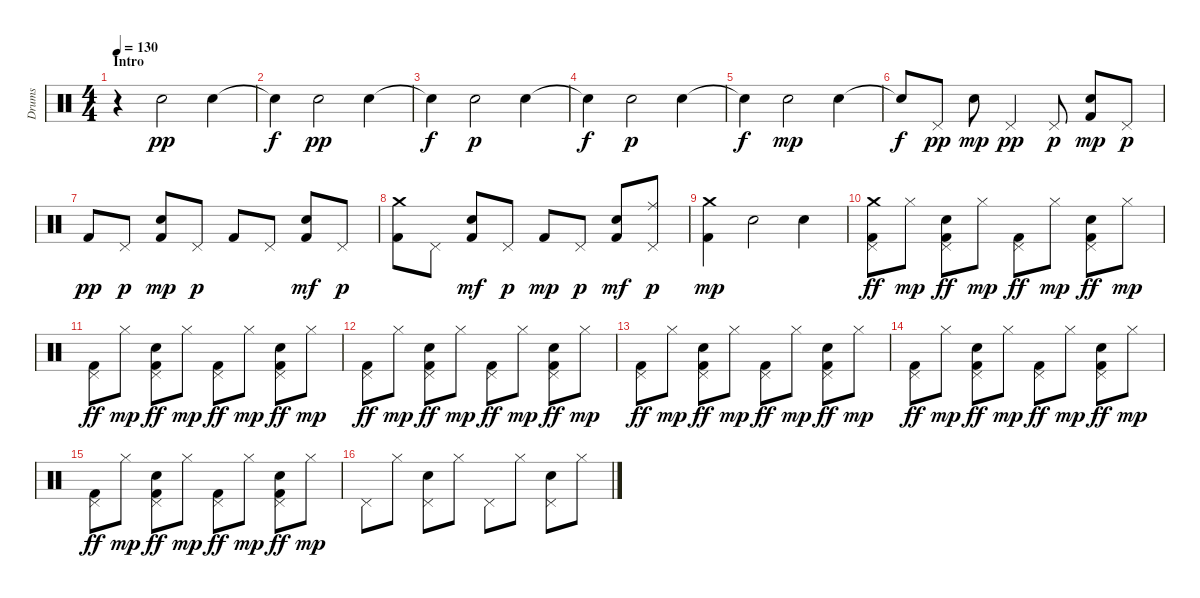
\track ("Drums" "Drums") {instrument percussion}
\staff {score}
\articulation defaults
\ts (4 4)
\section ("" "Intro")
\tempo 130
\clef neutral
\ks c
r.4{dy pp} "Hand Clap (hit)".2 "Hand Clap (hit)".4 |
"Snare (hit)"{t}.4{dy f} "Hand Clap (hit)".2{dy pp} "Hand Clap (hit)".4 |
"Snare (hit)"{t}.4{dy f} "Hand Clap (hit)".2{dy p} "Hand Clap (hit)".4 |
"Snare (hit)"{t}.4{dy f} "Hand Clap (hit)".2{dy p} "Hand Clap (hit)".4 |
"Snare (hit)"{t}.4{dy f} "Hand Clap (hit)".2{dy mp} "Hand Clap (hit)".4 |
"Snare (hit)"{t}.8{dy f} "Pedal Hi-Hat (hit)".8{dy pp} "Hand Clap (hit)".8{dy mp} "Pedal Hi-Hat (hit)".4{dy pp} "Pedal Hi-Hat (hit)".8{dy p} ("Kick (hit) 2" "Hand Clap (hit)").8{dy mp} "Pedal Hi-Hat (hit)".8{dy p} |
"Kick (hit) 2".8{dy pp} "Pedal Hi-Hat (hit)".8{dy p} ("Kick (hit) 2" "Hand Clap (hit)").8{dy mp} "Pedal Hi-Hat (hit)".8{dy p} "Kick (hit) 2".8 "Pedal Hi-Hat (hit)".8 ("Kick (hit) 2" "Hand Clap (hit)").8{dy mf} "Pedal Hi-Hat (hit)".8{dy p} |
("Crash medium (hit)" "Kick (hit) 2").8 "Pedal Hi-Hat (hit)".8 ("Kick (hit) 2" "Hand Clap (hit)").8{dy mf} "Pedal Hi-Hat (hit)".8{dy p} "Kick (hit) 2".8{dy mp} "Pedal Hi-Hat (hit)".8{dy p} ("Kick (hit) 2" "Hand Clap (hit)").8{dy mf} ("Ride (middle)" "Pedal Hi-Hat (hit)").8{dy p} |
("Crash medium (hit)" "Kick (hit) 2").4{dy mp} "Hand Clap (hit)".2 "Hand Clap (hit)".4 |
("Crash medium (hit)" "Pedal Hi-Hat (hit)" "Kick (hit) 2").8{dy ff} "Hi-Hat (closed)".8{dy mp} ("Hand Clap (hit)" "Pedal Hi-Hat (hit)" "Kick (hit) 2").8{dy ff} "Hi-Hat (closed)".8{dy mp} ("Pedal Hi-Hat (hit)" "Kick (hit) 2").8{dy ff} "Hi-Hat (closed)".8{dy mp} ("Hand Clap (hit)" "Pedal Hi-Hat (hit)" "Kick (hit) 2").8{dy ff} "Hi-Hat (closed)".8{dy mp} |
("Pedal Hi-Hat (hit)" "Kick (hit) 2").8{dy ff} "Hi-Hat (closed)".8{dy mp} ("Hand Clap (hit)" "Pedal Hi-Hat (hit)" "Kick (hit) 2").8{dy ff} "Hi-Hat (closed)".8{dy mp} ("Pedal Hi-Hat (hit)" "Kick (hit) 2").8{dy ff} "Hi-Hat (closed)".8{dy mp} ("Hand Clap (hit)" "Pedal Hi-Hat (hit)" "Kick (hit) 2").8{dy ff} "Hi-Hat (closed)".8{dy mp} |
("Pedal Hi-Hat (hit)" "Kick (hit) 2").8{dy ff} "Hi-Hat (closed)".8{dy mp} ("Hand Clap (hit)" "Pedal Hi-Hat (hit)" "Kick (hit) 2").8{dy ff} "Hi-Hat (closed)".8{dy mp} ("Pedal Hi-Hat (hit)" "Kick (hit) 2").8{dy ff} "Hi-Hat (closed)".8{dy mp} ("Hand Clap (hit)" "Pedal Hi-Hat (hit)" "Kick (hit) 2").8{dy ff} "Hi-Hat (closed)".8{dy mp} |
("Pedal Hi-Hat (hit)" "Kick (hit) 2").8{dy ff} "Hi-Hat (closed)".8{dy mp} ("Hand Clap (hit)" "Pedal Hi-Hat (hit)" "Kick (hit) 2").8{dy ff} "Hi-Hat (closed)".8{dy mp} ("Pedal Hi-Hat (hit)" "Kick (hit) 2").8{dy ff} "Hi-Hat (closed)".8{dy mp} ("Hand Clap (hit)" "Pedal Hi-Hat (hit)" "Kick (hit) 2").8{dy ff} "Hi-Hat (closed)".8{dy mp} |
("Pedal Hi-Hat (hit)" "Kick (hit) 2").8{dy ff} "Hi-Hat (closed)".8{dy mp} ("Hand Clap (hit)" "Pedal Hi-Hat (hit)" "Kick (hit) 2").8{dy ff} "Hi-Hat (closed)".8{dy mp} ("Pedal Hi-Hat (hit)" "Kick (hit) 2").8{dy ff} "Hi-Hat (closed)".8{dy mp} ("Hand Clap (hit)" "Pedal Hi-Hat (hit)" "Kick (hit) 2").8{dy ff} "Hi-Hat (closed)".8{dy mp} |
("Pedal Hi-Hat (hit)" "Kick (hit) 2").8{dy ff} "Hi-Hat (closed)".8{dy mp} ("Hand Clap (hit)" "Pedal Hi-Hat (hit)" "Kick (hit) 2").8{dy ff} "Hi-Hat (closed)".8{dy mp} ("Pedal Hi-Hat (hit)" "Kick (hit) 2").8{dy ff} "Hi-Hat (closed)".8{dy mp} ("Hand Clap (hit)" "Pedal Hi-Hat (hit)" "Kick (hit) 2").8{dy ff} "Hi-Hat (closed)".8{dy mp} |
"Pedal Hi-Hat (hit)".8 "Hi-Hat (closed)".8 ("Hand Clap (hit)" "Pedal Hi-Hat (hit)").8 "Hi-Hat (closed)".8 "Pedal Hi-Hat (hit)".8 "Hi-Hat (closed)".8 ("Hand Clap (hit)" "Pedal Hi-Hat (hit)").8 "Hi-Hat (closed)".8
